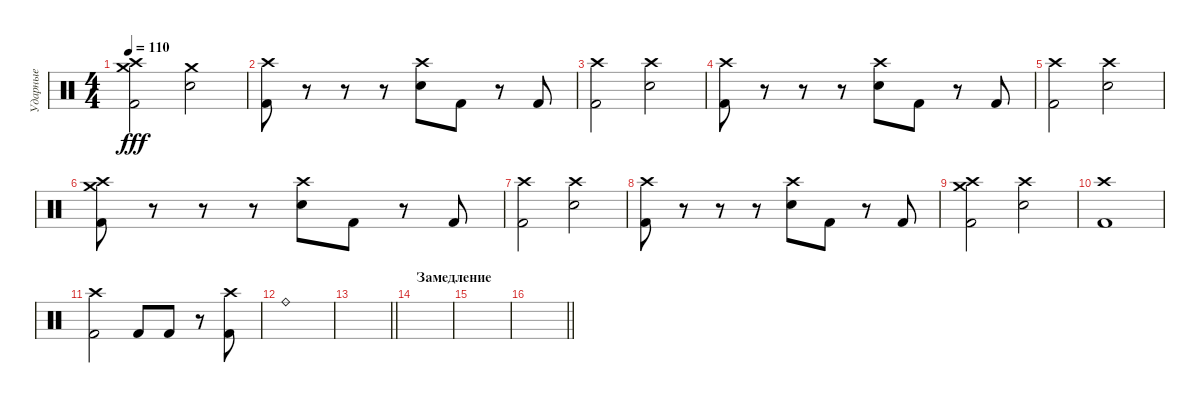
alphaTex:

\track ("Ударные" "Ударные") {mute instrument percussion}
\staff {score}
\articulation defaults
\ts (4 4)
\tempo 110
\clef neutral
\ks c
("Crash high (hit)" "Crash medium (hit)" "Kick (hit) 2").2{dy fff} ("Crash medium (hit)" "Snare (hit) 2").2 |
("Crash high (hit)" "Kick (hit) 2").8 r.8 r.8 r.8 ("Crash high (hit)" "Snare (hit) 2").8 "Kick (hit) 2".8 r.8 "Kick (hit) 2".8 |
("Crash high (hit)" "Kick (hit) 2").2 ("Crash high (hit)" "Snare (hit) 2").2 |
("Crash high (hit)" "Kick (hit) 2").8 r.8 r.8 r.8 ("Crash high (hit)" "Snare (hit) 2").8 "Kick (hit) 2".8 r.8 "Kick (hit) 2".8 |
("Crash high (hit)" "Kick (hit) 2").2 ("Crash high (hit)" "Snare (hit) 2").2 |
("Crash high (hit)" "Crash medium (hit)" "Kick (hit) 2").8 r.8 r.8 r.8 ("Crash high (hit)" "Snare (hit) 2").8 "Kick (hit) 2".8 r.8 "Kick (hit) 2".8 |
("Crash high (hit)" "Kick (hit) 2").2 ("Crash high (hit)" "Snare (hit) 2").2 |
("Crash high (hit)" "Kick (hit) 2").8 r.8 r.8 r.8 ("Crash high (hit)" "Snare (hit) 2").8 "Kick (hit) 2".8 r.8 "Kick (hit) 2".8 |
("Crash high (hit)" "Crash medium (hit)" "Kick (hit) 2").2 ("Crash high (hit)" "Snare (hit) 2").2 |
("Crash high (hit)" "Kick (hit) 2").1 |
("Crash high (hit)" "Kick (hit) 2").2 "Kick (hit) 2".8 "Kick (hit) 2".8 r.8 ("Crash high (hit)" "Kick (hit) 2").8 |
"Ride (bell)".1 |
\barLineRight lightlight
|
\section ("" "Замедление")
|
|
\barLineRight lightlight
